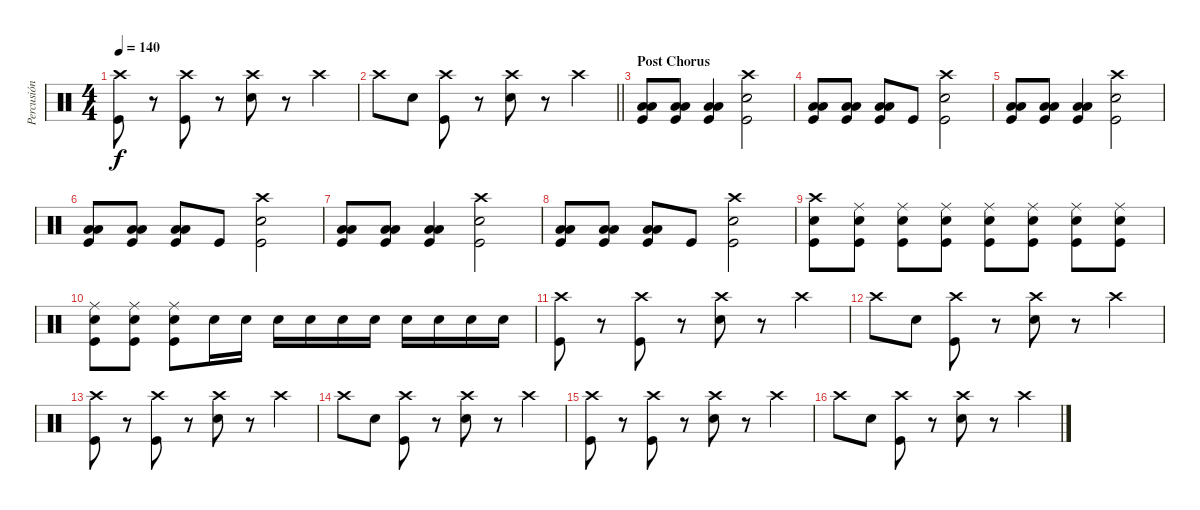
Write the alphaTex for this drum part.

\track ("Percusión" "Percusión") {instrument percussion}
\staff {score}
\articulation defaults
\ts (4 4)
\tempo 140
\clef neutral
\ks c
("Crash high (hit)" "Kick (hit)").8{dy f} r.8 ("Crash high (hit)" "Kick (hit)").8 r.8 ("Crash high (hit)" "Snare (hit) 2").8 r.8 "Crash high (hit)".4 |
\barLineRight lightlight "Crash high (hit)".8 "Snare (hit) 2".8
("Crash high (hit)" "Kick (hit)").8 r.8 ("Crash high (hit)" "Snare (hit) 2").8 r.8 "Crash high (hit)".4 |
\section ("" "Post Chorus")
("Low Floor Tom (hit)" "Low Tom (hit)" "Kick (hit)").8 ("Low Floor Tom (hit)" "Low Tom (hit)" "Kick (hit)").8 ("Low Floor Tom (hit)" "Low Tom (hit)" "Kick (hit)").4 ("Crash high (hit)" "Snare (hit) 2" "Kick (hit)").2 |
("Low Floor Tom (hit)" "Low Tom (hit)" "Kick (hit)").8 ("Low Floor Tom (hit)" "Low Tom (hit)" "Kick (hit)").8 ("Low Floor Tom (hit)" "Low Tom (hit)" "Kick (hit)").8 "Kick (hit)".8 ("Crash high (hit)" "Snare (hit) 2" "Kick (hit)").2 |
("Low Floor Tom (hit)" "Low Tom (hit)" "Kick (hit)").8 ("Low Floor Tom (hit)" "Low Tom (hit)" "Kick (hit)").8 ("Low Floor Tom (hit)" "Low Tom (hit)" "Kick (hit)").4 ("Crash high (hit)" "Snare (hit) 2" "Kick (hit)").2 |
("Low Floor Tom (hit)" "Low Tom (hit)" "Kick (hit)").8 ("Low Floor Tom (hit)" "Low Tom (hit)" "Kick (hit)").8 ("Low Floor Tom (hit)" "Low Tom (hit)" "Kick (hit)").8 "Kick (hit)".8 ("Crash high (hit)" "Snare (hit) 2" "Kick (hit)").2 |
("Low Floor Tom (hit)" "Low Tom (hit)" "Kick (hit)").8 ("Low Floor Tom (hit)" "Low Tom (hit)" "Kick (hit)").8 ("Low Floor Tom (hit)" "Low Tom (hit)" "Kick (hit)").4 ("Crash high (hit)" "Snare (hit) 2" "Kick (hit)").2 |
("Low Floor Tom (hit)" "Low Tom (hit)" "Kick (hit)").8 ("Low Floor Tom (hit)" "Low Tom (hit)" "Kick (hit)").8 ("Low Floor Tom (hit)" "Low Tom (hit)" "Kick (hit)").8 "Kick (hit)".8 ("Crash high (hit)" "Snare (hit) 2" "Kick (hit)").2 |
("Kick (hit)" "Crash high (hit)" "Snare (hit) 2").8 ("Kick (hit)" "Ride (middle)" "Snare (hit) 2").8 ("Kick (hit)" "Ride (middle)" "Snare (hit) 2").8 ("Kick (hit)" "Ride (middle)" "Snare (hit) 2").8 ("Kick (hit)" "Ride (middle)" "Snare (hit) 2").8 ("Kick (hit)" "Ride (middle)" "Snare (hit) 2").8 ("Kick (hit)" "Ride (middle)" "Snare (hit) 2").8 ("Kick (hit)" "Ride (middle)" "Snare (hit) 2").8 |
("Kick (hit)" "Ride (middle)" "Snare (hit) 2").8 ("Kick (hit)" "Ride (middle)" "Snare (hit) 2").8 ("Kick (hit)" "Ride (middle)" "Snare (hit) 2").8 "Snare (hit) 2".16 "Snare (hit) 2".16 "Snare (hit) 2".16 "Snare (hit) 2".16 "Snare (hit) 2".16 "Snare (hit) 2".16 "Snare (hit) 2".16 "Snare (hit) 2".16 "Snare (hit) 2".16 "Snare (hit) 2".16 |
("Crash high (hit)" "Kick (hit)").8 r.8 ("Crash high (hit)" "Kick (hit)").8 r.8 ("Crash high (hit)" "Snare (hit) 2").8 r.8 "Crash high (hit)".4 |
"Crash high (hit)".8 "Snare (hit) 2".8 ("Crash high (hit)" "Kick (hit)").8 r.8 ("Crash high (hit)" "Snare (hit) 2").8 r.8 "Crash high (hit)".4 |
("Crash high (hit)" "Kick (hit)").8 r.8 ("Crash high (hit)" "Kick (hit)").8 r.8 ("Crash high (hit)" "Snare (hit) 2").8 r.8 "Crash high (hit)".4 |
"Crash high (hit)".8 "Snare (hit) 2".8 ("Crash high (hit)" "Kick (hit)").8 r.8 ("Crash high (hit)" "Snare (hit) 2").8 r.8 "Crash high (hit)".4 |
("Crash high (hit)" "Kick (hit)").8 r.8 ("Crash high (hit)" "Kick (hit)").8 r.8 ("Crash high (hit)" "Snare (hit) 2").8 r.8 "Crash high (hit)".4 |
"Crash high (hit)".8 "Snare (hit) 2".8 ("Crash high (hit)" "Kick (hit)").8 r.8 ("Crash high (hit)" "Snare (hit) 2").8 r.8 "Crash high (hit)".4
